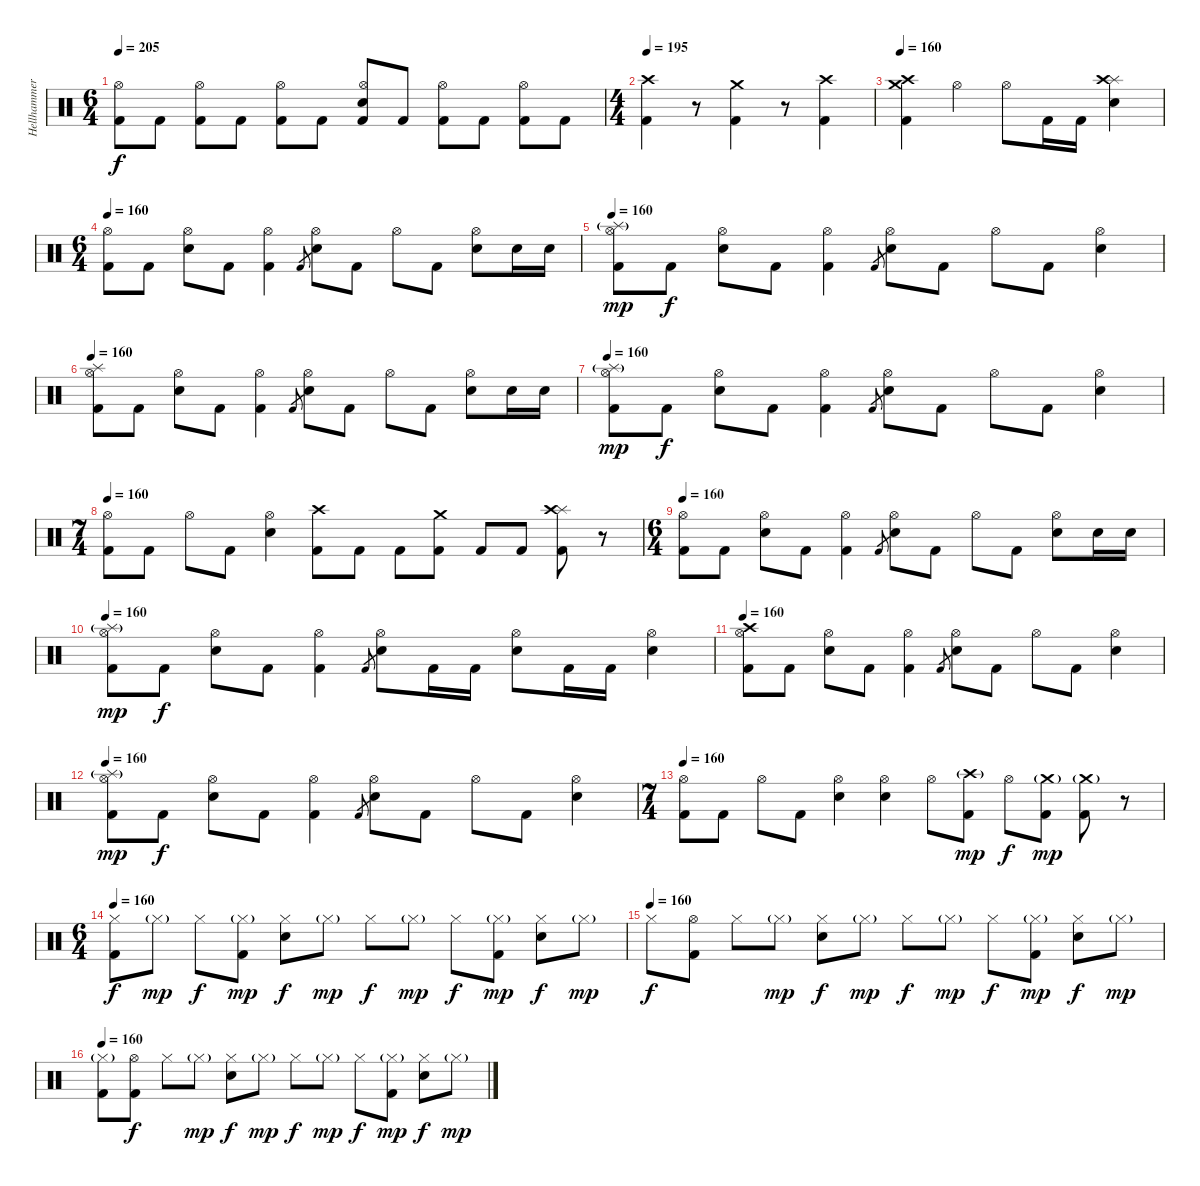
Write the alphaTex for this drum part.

\track ("Hellhammer" "Hellhammer") {instrument percussion}
\staff {score}
\articulation defaults
\ts (6 4)
\tempo 205
\clef neutral
\ks c
("Kick (hit) 2" "Hi-Hat (open)").8{dy f} "Kick (hit) 2".8 ("Kick (hit) 2" "Hi-Hat (open)").8 "Kick (hit) 2".8 ("Kick (hit) 2" "Hi-Hat (open)").8 "Kick (hit) 2".8 ("Kick (hit) 2" "Electric Snare (hit)" "Hi-Hat (open)").8 "Kick (hit) 2".8 ("Kick (hit) 2" "Hi-Hat (open)").8 "Kick (hit) 2".8 ("Kick (hit) 2" "Hi-Hat (open)").8 "Kick (hit) 2".8 |
\ts (4 4)
\tempo 160
\tempo 195
("Kick (hit) 2" "Crash high (hit)").4 r.8 ("Kick (hit) 2" "Crash medium (hit)").4 r.8 ("Kick (hit) 2" "Crash high (hit)").4 |
\tempo 160
("Kick (hit) 2" "Crash medium (hit)" "Crash high (hit)").4 "Hi-Hat (open)".4 "Hi-Hat (open)".8 "Kick (hit) 2".16 "Kick (hit) 2".16 ("Electric Snare (hit)" "Splash (hit)" "Crash high (hit)").4 |
\ts (6 4)
\tempo 160
("Kick (hit) 2" "Hi-Hat (open)").8 "Kick (hit) 2".8 ("Electric Snare (hit)" "Hi-Hat (open)").8 "Kick (hit) 2".8 ("Kick (hit) 2" "Hi-Hat (open)").4 "Kick (hit) 2".8{gr} ("Electric Snare (hit)" "Hi-Hat (open)").8 "Kick (hit) 2".8 "Hi-Hat (open)".8 "Kick (hit) 2".8 ("Electric Snare (hit)" "Hi-Hat (open)").8 "Electric Snare (hit)".16 "Electric Snare (hit)".16 |
\tempo 160
("Kick (hit) 2" "Hi-Hat (open)" "Splash (hit)"{g}).8{dy mp} "Kick (hit) 2".8{dy f} ("Electric Snare (hit)" "Hi-Hat (open)").8 "Kick (hit) 2".8 ("Kick (hit) 2" "Hi-Hat (open)").4 "Kick (hit) 2".8{gr} ("Electric Snare (hit)" "Hi-Hat (open)").8 "Kick (hit) 2".8 "Hi-Hat (open)".8 "Kick (hit) 2".8 ("Electric Snare (hit)" "Hi-Hat (open)").4 |
\tempo 160
("Kick (hit) 2" "Hi-Hat (open)" "Splash (hit)").8 "Kick (hit) 2".8 ("Electric Snare (hit)" "Hi-Hat (open)").8 "Kick (hit) 2".8 ("Kick (hit) 2" "Hi-Hat (open)").4 "Kick (hit) 2".8{gr} ("Electric Snare (hit)" "Hi-Hat (open)").8 "Kick (hit) 2".8 "Hi-Hat (open)".8 "Kick (hit) 2".8 ("Electric Snare (hit)" "Hi-Hat (open)").8 "Electric Snare (hit)".16 "Electric Snare (hit)".16 |
\tempo 160
("Kick (hit) 2" "Hi-Hat (open)" "Splash (hit)"{g}).8{dy mp} "Kick (hit) 2".8{dy f} ("Electric Snare (hit)" "Hi-Hat (open)").8 "Kick (hit) 2".8 ("Kick (hit) 2" "Hi-Hat (open)").4 "Kick (hit) 2".8{gr} ("Electric Snare (hit)" "Hi-Hat (open)").8 "Kick (hit) 2".8 "Hi-Hat (open)".8 "Kick (hit) 2".8 ("Electric Snare (hit)" "Hi-Hat (open)").4 |
\ts (7 4)
\tempo 160
("Kick (hit) 2" "Hi-Hat (open)").8 "Kick (hit) 2".8 "Hi-Hat (open)".8 "Kick (hit) 2".8 ("Electric Snare (hit)" "Hi-Hat (open)").4 ("Kick (hit) 2" "Crash high (hit)").8 "Kick (hit) 2".8 "Kick (hit) 2".8 ("Kick (hit) 2" "Crash medium (hit)").8 "Kick (hit) 2".8 "Kick (hit) 2".8 ("Kick (hit) 2" "Splash (hit)" "Crash high (hit)").8 r.8 |
\ts (6 4)
\tempo 160
("Kick (hit) 2" "Hi-Hat (open)").8 "Kick (hit) 2".8 ("Electric Snare (hit)" "Hi-Hat (open)").8 "Kick (hit) 2".8 ("Kick (hit) 2" "Hi-Hat (open)").4 "Kick (hit) 2".8{gr} ("Electric Snare (hit)" "Hi-Hat (open)").8 "Kick (hit) 2".8 "Hi-Hat (open)".8 "Kick (hit) 2".8 ("Electric Snare (hit)" "Hi-Hat (open)").8 "Electric Snare (hit)".16 "Electric Snare (hit)".16 |
\tempo 160
("Kick (hit) 2" "Hi-Hat (open)" "Splash (hit)"{g}).8{dy mp} "Kick (hit) 2".8{dy f} ("Electric Snare (hit)" "Hi-Hat (open)").8 "Kick (hit) 2".8 ("Kick (hit) 2" "Hi-Hat (open)").4 "Kick (hit) 2".8{gr} ("Electric Snare (hit)" "Hi-Hat (open)").8 "Kick (hit) 2".16 "Kick (hit) 2".16 ("Electric Snare (hit)" "Hi-Hat (open)").8 "Kick (hit) 2".16 "Kick (hit) 2".16 ("Electric Snare (hit)" "Hi-Hat (open)").4 |
\tempo 160
("Kick (hit) 2" "Hi-Hat (open)" "Crash high (hit)").8 "Kick (hit) 2".8 ("Electric Snare (hit)" "Hi-Hat (open)").8 "Kick (hit) 2".8 ("Kick (hit) 2" "Hi-Hat (open)").4 "Kick (hit) 2".8{gr} ("Electric Snare (hit)" "Hi-Hat (open)").8 "Kick (hit) 2".8 "Hi-Hat (open)".8 "Kick (hit) 2".8 ("Electric Snare (hit)" "Hi-Hat (open)").4 |
\tempo 160
("Kick (hit) 2" "Hi-Hat (open)" "Splash (hit)"{g}).8{dy mp} "Kick (hit) 2".8{dy f} ("Electric Snare (hit)" "Hi-Hat (open)").8 "Kick (hit) 2".8 ("Kick (hit) 2" "Hi-Hat (open)").4 "Kick (hit) 2".8{gr} ("Electric Snare (hit)" "Hi-Hat (open)").8 "Kick (hit) 2".8 "Hi-Hat (open)".8 "Kick (hit) 2".8 ("Electric Snare (hit)" "Hi-Hat (open)").4 |
\ts (7 4)
\tempo 160
("Kick (hit) 2" "Hi-Hat (open)").8 "Kick (hit) 2".8 "Hi-Hat (open)".8 "Kick (hit) 2".8 ("Electric Snare (hit)" "Hi-Hat (open)").4 ("Electric Snare (hit)" "Hi-Hat (open)").4 "Hi-Hat (open)".8 ("Kick (hit) 2" "Crash high (hit)"{g}).8{dy mp} "Hi-Hat (open)".8{dy f} ("Kick (hit) 2" "Crash medium (hit)"{g}).8{dy mp} ("Kick (hit) 2" "Crash medium (hit)"{g}).8 r.8 |
\ts (6 4)
\tempo 160
("Kick (hit) 2" "Hi-Hat (closed)").8{dy f} "Hi-Hat (closed)"{g}.8{dy mp} "Hi-Hat (closed)".8{dy f} ("Kick (hit) 2" "Hi-Hat (closed)"{g}).8{dy mp} ("Electric Snare (hit)" "Hi-Hat (closed)").8{dy f} "Hi-Hat (closed)"{g}.8{dy mp} "Hi-Hat (closed)".8{dy f} "Hi-Hat (closed)"{g}.8{dy mp} "Hi-Hat (closed)".8{dy f} ("Kick (hit) 2" "Hi-Hat (closed)"{g}).8{dy mp} ("Electric Snare (hit)" "Hi-Hat (closed)").8{dy f} "Hi-Hat (closed)"{g}.8{dy mp} |
\tempo (160)
"Hi-Hat (closed)".8{dy f} ("Kick (hit) 2" "Hi-Hat (open)").8 "Hi-Hat (closed)".8 "Hi-Hat (closed)"{g}.8{dy mp} ("Electric Snare (hit)" "Hi-Hat (closed)").8{dy f} "Hi-Hat (closed)"{g}.8{dy mp} "Hi-Hat (closed)".8{dy f} "Hi-Hat (closed)"{g}.8{dy mp} "Hi-Hat (closed)".8{dy f} ("Kick (hit) 2" "Hi-Hat (closed)"{g}).8{dy mp} ("Electric Snare (hit)" "Hi-Hat (closed)").8{dy f} "Hi-Hat (closed)"{g}.8{dy mp} |
\tempo 160
("Kick (hit) 2" "Hi-Hat (closed)"{g}).8 ("Kick (hit) 2" "Hi-Hat (open)").8{dy f} "Hi-Hat (closed)".8 "Hi-Hat (closed)"{g}.8{dy mp} ("Electric Snare (hit)" "Hi-Hat (closed)").8{dy f} "Hi-Hat (closed)"{g}.8{dy mp} "Hi-Hat (closed)".8{dy f} "Hi-Hat (closed)"{g}.8{dy mp} "Hi-Hat (closed)".8{dy f} ("Kick (hit) 2" "Hi-Hat (closed)"{g}).8{dy mp} ("Electric Snare (hit)" "Hi-Hat (closed)").8{dy f} "Hi-Hat (closed)"{g}.8{dy mp}
